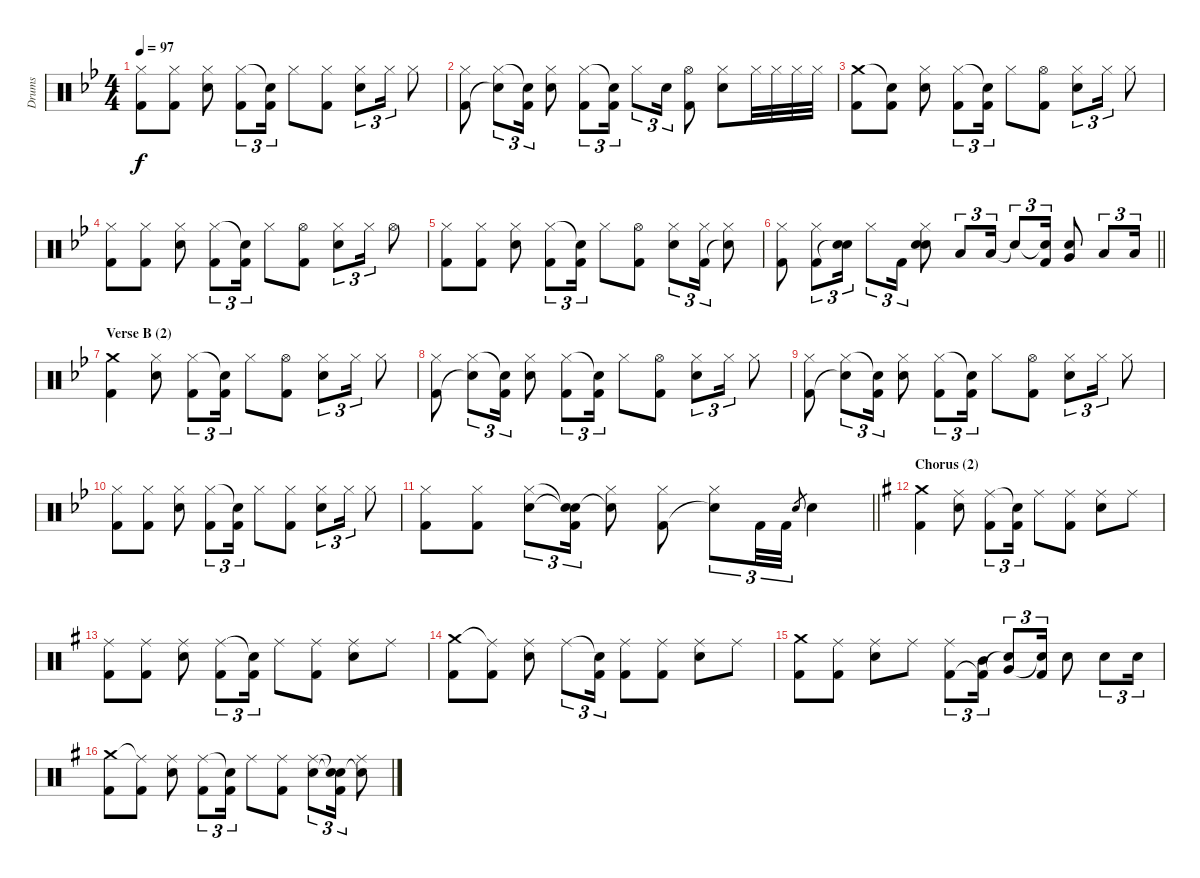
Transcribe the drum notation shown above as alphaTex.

\track ("Drums" "Drums") {instrument percussion}
\staff {score}
\articulation defaults
\ts (4 4)
\tempo 97
\clef neutral
\ks bb
("Hi-Hat (closed)" "Kick (hit) 2").8{dy f} ("Hi-Hat (closed)" "Kick (hit) 2").8 ("Hi-Hat (closed)" "Electric Snare (hit)").8 ("Hi-Hat (closed)" "Kick (hit) 2").8{tu (3 2)} ("Snare (hit)"{t} "Kick (hit) 2").16{tu (3 2)} "Hi-Hat (closed)".8 ("Hi-Hat (closed)" "Kick (hit) 2").8 ("Hi-Hat (closed)" "Electric Snare (hit)").8{tu (3 2)} "Hi-Hat (closed)".16{tu (3 2)} "Hi-Hat (closed)".8 |
("Hi-Hat (closed)" "Kick (hit) 2").8 ("Hi-Hat (closed)" "Snare (hit)"{t}).8{tu (3 2)} ("Snare (hit)"{t} "Kick (hit) 2").16{tu (3 2)} ("Hi-Hat (closed)" "Electric Snare (hit)").8 ("Hi-Hat (closed)" "Kick (hit) 2").8{tu (3 2)} ("Snare (hit)"{t} "Kick (hit) 2").16{tu (3 2)} "Hi-Hat (closed)".8{tu (3 2)} "Electric Snare (hit)".16{tu (3 2)} ("Hi-Hat (open)" "Kick (hit) 2").8 ("Hi-Hat (closed)" "Electric Snare (hit)").8 "Hi-Hat (closed)".32 "Hi-Hat (closed)".32 "Hi-Hat (closed)".32 "Hi-Hat (closed)".32 |
("Crash medium (hit)" "Kick (hit) 2").8 ("Snare (hit)"{t} "Kick (hit) 2").8 ("Hi-Hat (closed)" "Electric Snare (hit)").8 ("Hi-Hat (closed)" "Kick (hit) 2").8{tu (3 2)} ("Snare (hit)"{t} "Kick (hit) 2").16{tu (3 2)} "Hi-Hat (closed)".8 ("Hi-Hat (open)" "Kick (hit) 2").8 ("Hi-Hat (closed)" "Electric Snare (hit)").8{tu (3 2)} "Hi-Hat (closed)".16{tu (3 2)} "Hi-Hat (closed)".8 |
("Hi-Hat (closed)" "Kick (hit) 2").8 ("Hi-Hat (closed)" "Kick (hit) 2").8 ("Hi-Hat (closed)" "Electric Snare (hit)").8 ("Hi-Hat (closed)" "Kick (hit) 2").8{tu (3 2)} ("Snare (hit)"{t} "Kick (hit) 2").16{tu (3 2)} "Hi-Hat (closed)".8 ("Hi-Hat (open)" "Kick (hit) 2").8 ("Hi-Hat (closed)" "Electric Snare (hit)").8{tu (3 2)} "Hi-Hat (closed)".16{tu (3 2)} "Hi-Hat (open)".8 |
("Hi-Hat (closed)" "Kick (hit) 2").8 ("Hi-Hat (closed)" "Kick (hit) 2").8 ("Hi-Hat (closed)" "Electric Snare (hit)").8 ("Hi-Hat (closed)" "Kick (hit) 2").8{tu (3 2)} ("Snare (hit)"{t} "Kick (hit) 2").16{tu (3 2)} "Hi-Hat (closed)".8 ("Hi-Hat (open)" "Kick (hit) 2").8 ("Hi-Hat (closed)" "Electric Snare (hit)").8{tu (3 2)} ("Hi-Hat (closed)" "Kick (hit) 2").16{tu (3 2)} ("Hi-Hat (closed)" "Snare (hit)"{t}).8 |
\barLineRight lightlight
("Hi-Hat (closed)" "Kick (hit) 2").8 ("Hi-Hat (closed)" "Kick (hit) 2").8{tu (3 2)} ("Electric Snare (hit)" "Snare (hit)"{t}).16{tu (3 2)} "Hi-Hat (closed)".8{tu (3 2)} "Kick (hit) 2".16{tu (3 2)} ("Hi-Hat (closed)" "Electric Snare (hit)" "Snare (hit)").8 "Low Tom (hit)".8{tu (3 2)} "Low Tom (hit)".16{tu (3 2)} "Snare (hit)"{t}.8{tu (3 2)} ("Snare (hit)"{t} "Kick (hit) 2").16{tu (3 2)} ("Electric Snare (hit)" "Very Low Tom (hit)").8 "Low Floor Tom (hit)".8{tu (3 2)} "Low Floor Tom (hit)".16{tu (3 2)} |
\section ("" "Verse B (2)")
("Crash medium (hit)" "Kick (hit) 2").4 ("Hi-Hat (closed)" "Electric Snare (hit)").8 ("Hi-Hat (closed)" "Kick (hit) 2").8{tu (3 2)} ("Snare (hit)"{t} "Kick (hit) 2").16{tu (3 2)} "Hi-Hat (closed)".8 ("Hi-Hat (open)" "Kick (hit) 2").8 ("Hi-Hat (closed)" "Electric Snare (hit)").8{tu (3 2)} "Hi-Hat (closed)".16{tu (3 2)} "Hi-Hat (closed)".8 |
("Hi-Hat (closed)" "Kick (hit) 2").8 ("Hi-Hat (closed)" "Snare (hit)"{t}).8{tu (3 2)} ("Snare (hit)"{t} "Kick (hit) 2").16{tu (3 2)} ("Hi-Hat (closed)" "Electric Snare (hit)").8 ("Hi-Hat (closed)" "Kick (hit) 2").8{tu (3 2)} ("Snare (hit)"{t} "Kick (hit) 2").16{tu (3 2)} "Hi-Hat (closed)".8 ("Hi-Hat (open)" "Kick (hit) 2").8 ("Hi-Hat (closed)" "Electric Snare (hit)").8{tu (3 2)} "Hi-Hat (closed)".16{tu (3 2)} "Hi-Hat (closed)".8 |
("Hi-Hat (closed)" "Kick (hit) 2").8 ("Hi-Hat (closed)" "Snare (hit)"{t}).8{tu (3 2)} ("Snare (hit)"{t} "Kick (hit) 2").16{tu (3 2)} ("Hi-Hat (closed)" "Electric Snare (hit)").8 ("Hi-Hat (closed)" "Kick (hit) 2").8{tu (3 2)} ("Snare (hit)"{t} "Kick (hit) 2").16{tu (3 2)} "Hi-Hat (closed)".8 ("Hi-Hat (open)" "Kick (hit) 2").8 ("Hi-Hat (closed)" "Electric Snare (hit)").8{tu (3 2)} "Hi-Hat (closed)".16{tu (3 2)} "Hi-Hat (closed)".8 |
("Hi-Hat (closed)" "Kick (hit) 2").8 ("Hi-Hat (closed)" "Kick (hit) 2").8 ("Hi-Hat (closed)" "Electric Snare (hit)").8 ("Hi-Hat (closed)" "Kick (hit) 2").8{tu (3 2)} ("Snare (hit)"{t} "Kick (hit) 2").16{tu (3 2)} "Hi-Hat (closed)".8 ("Hi-Hat (closed)" "Kick (hit) 2").8 ("Hi-Hat (closed)" "Electric Snare (hit)").8{tu (3 2)} "Hi-Hat (closed)".16{tu (3 2)} "Hi-Hat (closed)".8 |
\barLineRight lightlight
("Hi-Hat (closed)" "Kick (hit) 2").8 ("Hi-Hat (closed)" "Kick (hit) 2").8 ("Hi-Hat (closed)" "Electric Snare (hit)").8{tu (3 2)} ("Snare (hit)"{t} "Snare (hit)"{t} "Kick (hit) 2").16{tu (3 2)} ("Hi-Hat (closed)" "Snare (hit)"{t}).8 ("Hi-Hat (closed)" "Kick (hit) 2").8 ("Hi-Hat (closed)" "Snare (hit)"{t}).8{tu (3 2)} "Kick (hit) 2".32{tu (3 2)} "Kick (hit) 2".32{tu (3 2)} "Electric Snare (hit)".8{gr} "Electric Snare (hit)".4 |
\section ("" "Chorus (2)")
\ks g
("Crash medium (hit)" "Kick (hit) 2").4 ("Ride (middle)" "Electric Snare (hit)").8 ("Ride (middle)" "Kick (hit) 2").8{tu (3 2)} ("Snare (hit)"{t} "Kick (hit) 2").16{tu (3 2)} "Ride (middle)".8 ("Ride (middle)" "Kick (hit) 2").8 ("Ride (middle)" "Electric Snare (hit)").8 "Ride (middle)".8 |
("Ride (middle)" "Kick (hit) 2").8 ("Ride (middle)" "Kick (hit) 2").8 ("Ride (middle)" "Electric Snare (hit)").8 ("Ride (middle)" "Kick (hit) 2").8{tu (3 2)} ("Snare (hit)"{t} "Kick (hit) 2").16{tu (3 2)} "Ride (middle)".8 ("Ride (middle)" "Kick (hit) 2").8 ("Ride (middle)" "Electric Snare (hit)").8 "Ride (middle)".8 |
("Crash medium (hit)" "Kick (hit) 2").8 ("Ride (middle)"{t} "Kick (hit) 2").8 ("Ride (middle)" "Electric Snare (hit)").8 "Ride (middle)".8{tu (3 2)} ("Snare (hit)"{t} "Kick (hit) 2").16{tu (3 2)} ("Ride (middle)" "Kick (hit) 2").8 ("Ride (middle)" "Kick (hit) 2").8 ("Ride (middle)" "Electric Snare (hit)").8 "Ride (middle)".8 |
("Crash medium (hit)" "Kick (hit) 2").8 ("Ride (middle)" "Kick (hit) 2").8 ("Ride (middle)" "Electric Snare (hit)").8 "Ride (middle)".8 ("Ride (middle)" "Kick (hit) 2").8{tu (3 2)} ("Mid Tom (hit)" "Kick (hit) 2"{t}).16{tu (3 2)} ("Very Low Tom (hit)" "Snare (hit)"{t}).8{tu (3 2)} ("Snare (hit)"{t} "Kick (hit) 2").16{tu (3 2)} "Electric Snare (hit)".8 "Electric Snare (hit)".8{tu (3 2)} "Electric Snare (hit)".16{tu (3 2)} |
("Crash medium (hit)" "Kick (hit) 2").8 ("Ride (middle)"{t} "Kick (hit) 2").8 ("Ride (middle)" "Electric Snare (hit)").8 ("Ride (middle)" "Kick (hit) 2").8{tu (3 2)} ("Snare (hit)"{t} "Kick (hit) 2").16{tu (3 2)} "Ride (middle)".8 ("Ride (middle)" "Kick (hit) 2").8 ("Ride (middle)" "Electric Snare (hit)").8{tu (3 2)} ("Snare (hit)"{t} "Snare (hit)"{t} "Kick (hit) 2").16{tu (3 2)} ("Ride (middle)" "Snare (hit)"{t}).8
